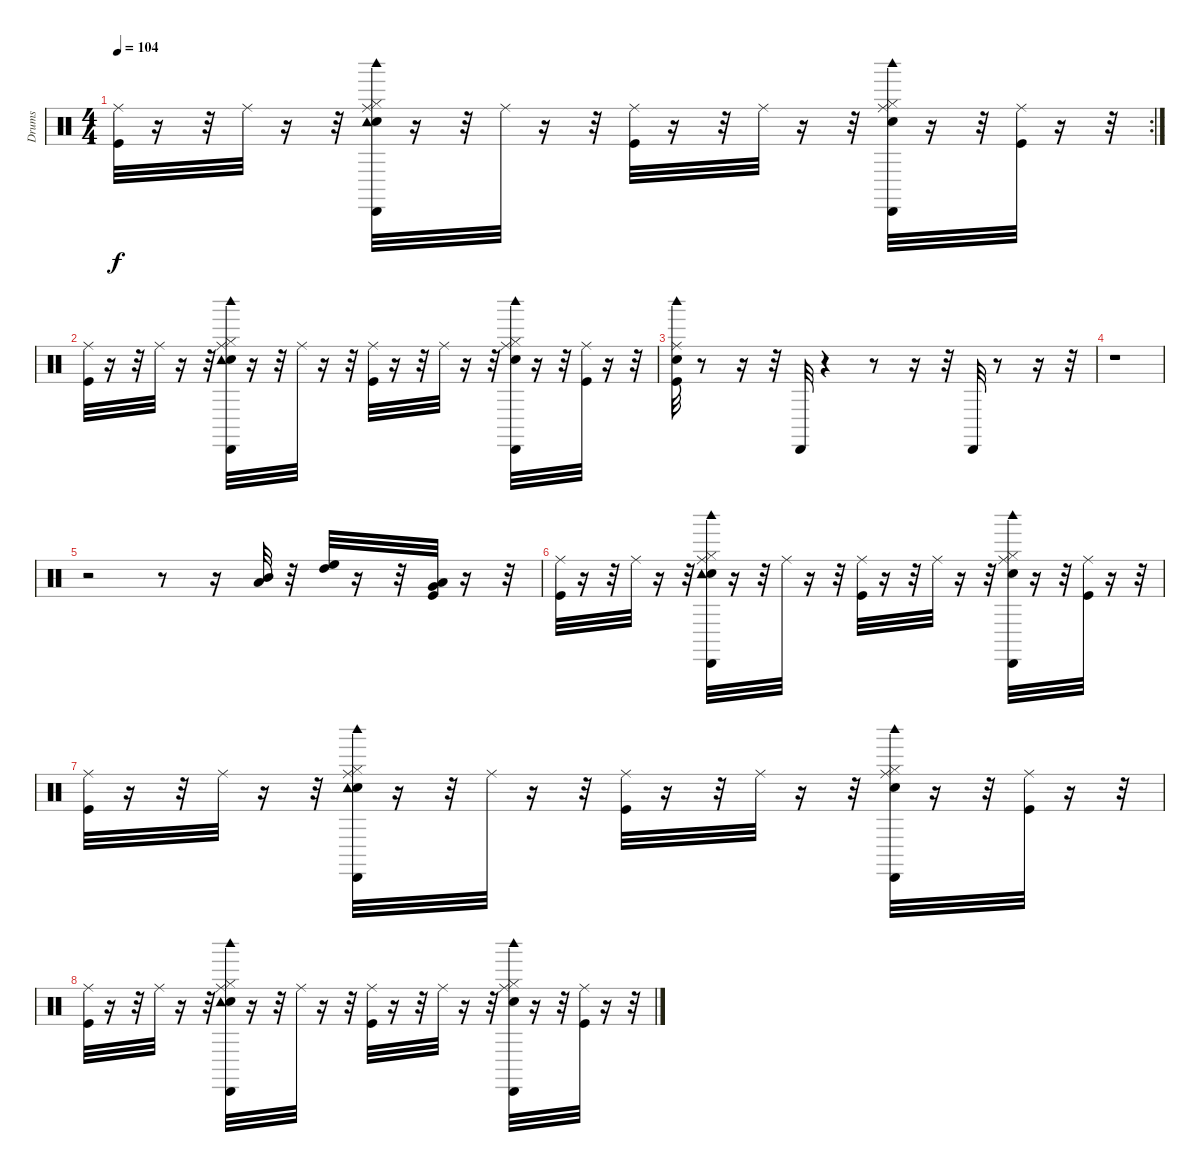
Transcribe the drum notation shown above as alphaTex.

\track ("Drums" "Drums") {instrument percussion}
\staff {score}
\articulation defaults
\rc 2
\ts (4 4)
\tempo 104
\clef neutral
\ks c
("Kick (hit)" "Ride (middle)").32{dy f} r.16 r.32 "Ride (middle)".32 r.16 r.32 ("Snare (hit) 2" "Hi-Hat (closed)" "Ride (middle)" "Tambourine (hit)" "Cabasa (hit)" "Woodblock high (hit)").32 r.16 r.32 "Ride (middle)".32 r.16 r.32 ("Kick (hit)" "Ride (middle)").32 r.16 r.32 "Ride (middle)".32 r.16 r.32 ("Snare (hit) 2" "Hi-Hat (closed)" "Ride (middle)" "Cabasa (hit)" "Woodblock high (hit)").32 r.16 r.32 ("Kick (hit)" "Ride (middle)").32 r.16 r.32 |
("Kick (hit)" "Ride (middle)").32 r.16 r.32 "Ride (middle)".32 r.16 r.32 ("Snare (hit) 2" "Hi-Hat (closed)" "Ride (middle)" "Tambourine (hit)" "Cabasa (hit)" "Woodblock high (hit)").32 r.16 r.32 "Ride (middle)".32 r.16 r.32 ("Kick (hit)" "Ride (middle)").32 r.16 r.32 "Ride (middle)".32 r.16 r.32 ("Snare (hit) 2" "Hi-Hat (closed)" "Ride (middle)" "Cabasa (hit)" "Woodblock high (hit)").32 r.16 r.32 ("Kick (hit)" "Ride (middle)").32 r.16 r.32 |
("Kick (hit)" "Snare (hit) 2" "Ride (middle)" "Woodblock high (hit)").32 r.8 r.16 r.32 "Cabasa (hit)".32 r.4 r.8 r.16 r.32 "Cabasa (hit)".32 r.8 r.16 r.32 |
r.1 |
r.2 r.8 r.16 ("Low Tom (hit)" "Mid Tom (hit)").32 r.32 ("High Tom (hit)" "High Floor Tom (hit)").32 r.16 r.32 ("Kick (hit)" "Low Floor Tom (hit)" "Very Low Tom (hit)").32 r.16 r.32 |
("Kick (hit)" "Ride (middle)").32 r.16 r.32 "Ride (middle)".32 r.16 r.32 ("Snare (hit) 2" "Hi-Hat (closed)" "Ride (middle)" "Tambourine (hit)" "Cabasa (hit)" "Woodblock high (hit)").32 r.16 r.32 "Ride (middle)".32 r.16 r.32 ("Kick (hit)" "Ride (middle)").32 r.16 r.32 "Ride (middle)".32 r.16 r.32 ("Snare (hit) 2" "Hi-Hat (closed)" "Ride (middle)" "Cabasa (hit)" "Woodblock high (hit)").32 r.16 r.32 ("Kick (hit)" "Ride (middle)").32 r.16 r.32 |
("Kick (hit)" "Ride (middle)").32 r.16 r.32 "Ride (middle)".32 r.16 r.32 ("Snare (hit) 2" "Hi-Hat (closed)" "Ride (middle)" "Tambourine (hit)" "Cabasa (hit)" "Woodblock high (hit)").32 r.16 r.32 "Ride (middle)".32 r.16 r.32 ("Kick (hit)" "Ride (middle)").32 r.16 r.32 "Ride (middle)".32 r.16 r.32 ("Snare (hit) 2" "Hi-Hat (closed)" "Ride (middle)" "Cabasa (hit)" "Woodblock high (hit)").32 r.16 r.32 ("Kick (hit)" "Ride (middle)").32 r.16 r.32 |
("Kick (hit)" "Ride (middle)").32 r.16 r.32 "Ride (middle)".32 r.16 r.32 ("Snare (hit) 2" "Hi-Hat (closed)" "Ride (middle)" "Tambourine (hit)" "Cabasa (hit)" "Woodblock high (hit)").32 r.16 r.32 "Ride (middle)".32 r.16 r.32 ("Kick (hit)" "Ride (middle)").32 r.16 r.32 "Ride (middle)".32 r.16 r.32 ("Snare (hit) 2" "Hi-Hat (closed)" "Ride (middle)" "Cabasa (hit)" "Woodblock high (hit)").32 r.16 r.32 ("Kick (hit)" "Ride (middle)").32 r.16 r.32
